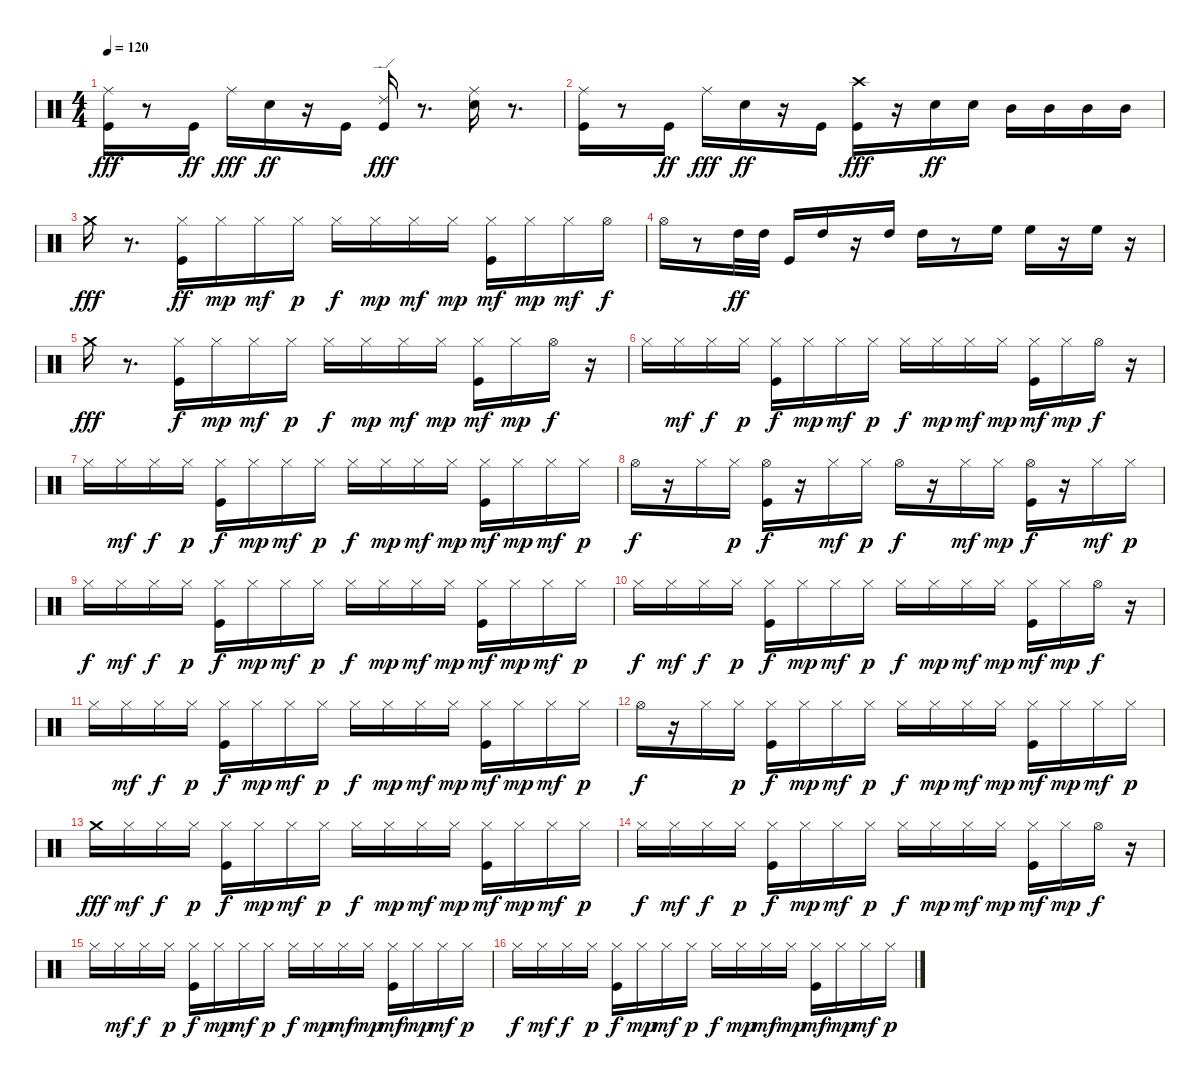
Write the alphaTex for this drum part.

\track "" {instrument percussion}
\staff {score}
\articulation defaults
\ts (4 4)
\tempo 120
\clef neutral
\ks c
("Kick (hit)" "Ride (middle)").16{dy fff} r.8 "Kick (hit)".16{dy ff} "Ride (middle)".16{dy fff} "Electric Snare (hit)".16{dy ff} r.16 "Kick (hit)".16 ("Kick (hit)" "Ride (edge) 2").16{dy fff} r.8{d} ("Electric Snare (hit)" "Ride (middle)").16 r.8{d} |
("Kick (hit)" "Ride (middle)").16 r.8 "Kick (hit)".16{dy ff} "Ride (middle)".16{dy fff} "Electric Snare (hit)".16{dy ff} r.16 "Kick (hit)".16 ("Kick (hit)" "Crash high (hit)").16{dy fff} r.16 "Electric Snare (hit)".16{dy ff} "Electric Snare (hit)".16 "Mid Tom (hit)".16 "Mid Tom (hit)".16 "Mid Tom (hit)".16 "Mid Tom (hit)".16 |
"Crash medium (hit)".16{dy fff} r.8{d} ("Kick (hit)" "Hi-Hat (closed)").16{dy ff} "Hi-Hat (closed)".16{dy mp} "Hi-Hat (closed)".16{dy mf} "Hi-Hat (closed)".16{dy p} "Hi-Hat (closed)".16{dy f} "Hi-Hat (closed)".16{dy mp} "Hi-Hat (closed)".16{dy mf} "Hi-Hat (closed)".16{dy mp} ("Kick (hit)" "Hi-Hat (closed)").16{dy mf} "Hi-Hat (closed)".16{dy mp} "Hi-Hat (closed)".16{dy mf} "Hi-Hat (open)".16{dy f} |
"Hi-Hat (open)".16 r.8 "High Tom (hit)".32{dy ff} "High Tom (hit)".32 "Kick (hit)".16 "High Tom (hit)".16 r.16 "High Tom (hit)".16 "High Tom (hit)".16 r.8 "High Floor Tom (hit)".16 "High Floor Tom (hit)".16 r.16 "High Floor Tom (hit)".16 r.16 |
"Crash medium (hit)".16{dy fff} r.8{d} ("Kick (hit)" "Hi-Hat (closed)").16{dy f} "Hi-Hat (closed)".16{dy mp} "Hi-Hat (closed)".16{dy mf} "Hi-Hat (closed)".16{dy p} "Hi-Hat (closed)".16{dy f} "Hi-Hat (closed)".16{dy mp} "Hi-Hat (closed)".16{dy mf} "Hi-Hat (closed)".16{dy mp} ("Kick (hit)" "Hi-Hat (closed)").16{dy mf} "Hi-Hat (closed)".16{dy mp} "Hi-Hat (open)".16{dy f} r.16 |
"Hi-Hat (closed)".16 "Hi-Hat (closed)".16{dy mf} "Hi-Hat (closed)".16{dy f} "Hi-Hat (closed)".16{dy p} ("Kick (hit)" "Hi-Hat (closed)").16{dy f} "Hi-Hat (closed)".16{dy mp} "Hi-Hat (closed)".16{dy mf} "Hi-Hat (closed)".16{dy p} "Hi-Hat (closed)".16{dy f} "Hi-Hat (closed)".16{dy mp} "Hi-Hat (closed)".16{dy mf} "Hi-Hat (closed)".16{dy mp} ("Kick (hit)" "Hi-Hat (closed)").16{dy mf} "Hi-Hat (closed)".16{dy mp} "Hi-Hat (open)".16{dy f} r.16 |
"Hi-Hat (closed)".16 "Hi-Hat (closed)".16{dy mf} "Hi-Hat (closed)".16{dy f} "Hi-Hat (closed)".16{dy p} ("Kick (hit)" "Hi-Hat (closed)").16{dy f} "Hi-Hat (closed)".16{dy mp} "Hi-Hat (closed)".16{dy mf} "Hi-Hat (closed)".16{dy p} "Hi-Hat (closed)".16{dy f} "Hi-Hat (closed)".16{dy mp} "Hi-Hat (closed)".16{dy mf} "Hi-Hat (closed)".16{dy mp} ("Kick (hit)" "Hi-Hat (closed)").16{dy mf} "Hi-Hat (closed)".16{dy mp} "Hi-Hat (closed)".16{dy mf} "Hi-Hat (closed)".16{dy p} |
"Hi-Hat (open)".16{dy f} r.16 "Hi-Hat (closed)".16 "Hi-Hat (closed)".16{dy p} ("Kick (hit)" "Hi-Hat (open)").16{dy f} r.16 "Hi-Hat (closed)".16{dy mf} "Hi-Hat (closed)".16{dy p} "Hi-Hat (open)".16{dy f} r.16 "Hi-Hat (closed)".16{dy mf} "Hi-Hat (closed)".16{dy mp} ("Kick (hit)" "Hi-Hat (open)").16{dy f} r.16 "Hi-Hat (closed)".16{dy mf} "Hi-Hat (closed)".16{dy p} |
"Hi-Hat (closed)".16{dy f} "Hi-Hat (closed)".16{dy mf} "Hi-Hat (closed)".16{dy f} "Hi-Hat (closed)".16{dy p} ("Kick (hit)" "Hi-Hat (closed)").16{dy f} "Hi-Hat (closed)".16{dy mp} "Hi-Hat (closed)".16{dy mf} "Hi-Hat (closed)".16{dy p} "Hi-Hat (closed)".16{dy f} "Hi-Hat (closed)".16{dy mp} "Hi-Hat (closed)".16{dy mf} "Hi-Hat (closed)".16{dy mp} ("Kick (hit)" "Hi-Hat (closed)").16{dy mf} "Hi-Hat (closed)".16{dy mp} "Hi-Hat (closed)".16{dy mf} "Hi-Hat (closed)".16{dy p} |
"Hi-Hat (closed)".16{dy f} "Hi-Hat (closed)".16{dy mf} "Hi-Hat (closed)".16{dy f} "Hi-Hat (closed)".16{dy p} ("Kick (hit)" "Hi-Hat (closed)").16{dy f} "Hi-Hat (closed)".16{dy mp} "Hi-Hat (closed)".16{dy mf} "Hi-Hat (closed)".16{dy p} "Hi-Hat (closed)".16{dy f} "Hi-Hat (closed)".16{dy mp} "Hi-Hat (closed)".16{dy mf} "Hi-Hat (closed)".16{dy mp} ("Kick (hit)" "Hi-Hat (closed)").16{dy mf} "Hi-Hat (closed)".16{dy mp} "Hi-Hat (open)".16{dy f} r.16 |
"Hi-Hat (closed)".16 "Hi-Hat (closed)".16{dy mf} "Hi-Hat (closed)".16{dy f} "Hi-Hat (closed)".16{dy p} ("Kick (hit)" "Hi-Hat (closed)").16{dy f} "Hi-Hat (closed)".16{dy mp} "Hi-Hat (closed)".16{dy mf} "Hi-Hat (closed)".16{dy p} "Hi-Hat (closed)".16{dy f} "Hi-Hat (closed)".16{dy mp} "Hi-Hat (closed)".16{dy mf} "Hi-Hat (closed)".16{dy mp} ("Kick (hit)" "Hi-Hat (closed)").16{dy mf} "Hi-Hat (closed)".16{dy mp} "Hi-Hat (closed)".16{dy mf} "Hi-Hat (closed)".16{dy p} |
"Hi-Hat (open)".16{dy f} r.16 "Hi-Hat (closed)".16 "Hi-Hat (closed)".16{dy p} ("Kick (hit)" "Hi-Hat (closed)").16{dy f} "Hi-Hat (closed)".16{dy mp} "Hi-Hat (closed)".16{dy mf} "Hi-Hat (closed)".16{dy p} "Hi-Hat (closed)".16{dy f} "Hi-Hat (closed)".16{dy mp} "Hi-Hat (closed)".16{dy mf} "Hi-Hat (closed)".16{dy mp} ("Kick (hit)" "Hi-Hat (closed)").16{dy mf} "Hi-Hat (closed)".16{dy mp} "Hi-Hat (closed)".16{dy mf} "Hi-Hat (closed)".16{dy p} |
"Crash medium (hit)".16{dy fff} "Hi-Hat (closed)".16{dy mf} "Hi-Hat (closed)".16{dy f} "Hi-Hat (closed)".16{dy p} ("Kick (hit)" "Hi-Hat (closed)").16{dy f} "Hi-Hat (closed)".16{dy mp} "Hi-Hat (closed)".16{dy mf} "Hi-Hat (closed)".16{dy p} "Hi-Hat (closed)".16{dy f} "Hi-Hat (closed)".16{dy mp} "Hi-Hat (closed)".16{dy mf} "Hi-Hat (closed)".16{dy mp} ("Kick (hit)" "Hi-Hat (closed)").16{dy mf} "Hi-Hat (closed)".16{dy mp} "Hi-Hat (closed)".16{dy mf} "Hi-Hat (closed)".16{dy p} |
"Hi-Hat (closed)".16{dy f} "Hi-Hat (closed)".16{dy mf} "Hi-Hat (closed)".16{dy f} "Hi-Hat (closed)".16{dy p} ("Kick (hit)" "Hi-Hat (closed)").16{dy f} "Hi-Hat (closed)".16{dy mp} "Hi-Hat (closed)".16{dy mf} "Hi-Hat (closed)".16{dy p} "Hi-Hat (closed)".16{dy f} "Hi-Hat (closed)".16{dy mp} "Hi-Hat (closed)".16{dy mf} "Hi-Hat (closed)".16{dy mp} ("Kick (hit)" "Hi-Hat (closed)").16{dy mf} "Hi-Hat (closed)".16{dy mp} "Hi-Hat (open)".16{dy f} r.16 |
"Hi-Hat (closed)".16 "Hi-Hat (closed)".16{dy mf} "Hi-Hat (closed)".16{dy f} "Hi-Hat (closed)".16{dy p} ("Kick (hit)" "Hi-Hat (closed)").16{dy f} "Hi-Hat (closed)".16{dy mp} "Hi-Hat (closed)".16{dy mf} "Hi-Hat (closed)".16{dy p} "Hi-Hat (closed)".16{dy f} "Hi-Hat (closed)".16{dy mp} "Hi-Hat (closed)".16{dy mf} "Hi-Hat (closed)".16{dy mp} ("Kick (hit)" "Hi-Hat (closed)").16{dy mf} "Hi-Hat (closed)".16{dy mp} "Hi-Hat (closed)".16{dy mf} "Hi-Hat (closed)".16{dy p} |
"Hi-Hat (closed)".16{dy f} "Hi-Hat (closed)".16{dy mf} "Hi-Hat (closed)".16{dy f} "Hi-Hat (closed)".16{dy p} ("Kick (hit)" "Hi-Hat (closed)").16{dy f} "Hi-Hat (closed)".16{dy mp} "Hi-Hat (closed)".16{dy mf} "Hi-Hat (closed)".16{dy p} "Hi-Hat (closed)".16{dy f} "Hi-Hat (closed)".16{dy mp} "Hi-Hat (closed)".16{dy mf} "Hi-Hat (closed)".16{dy mp} ("Kick (hit)" "Hi-Hat (closed)").16{dy mf} "Hi-Hat (closed)".16{dy mp} "Hi-Hat (closed)".16{dy mf} "Hi-Hat (closed)".16{dy p}
